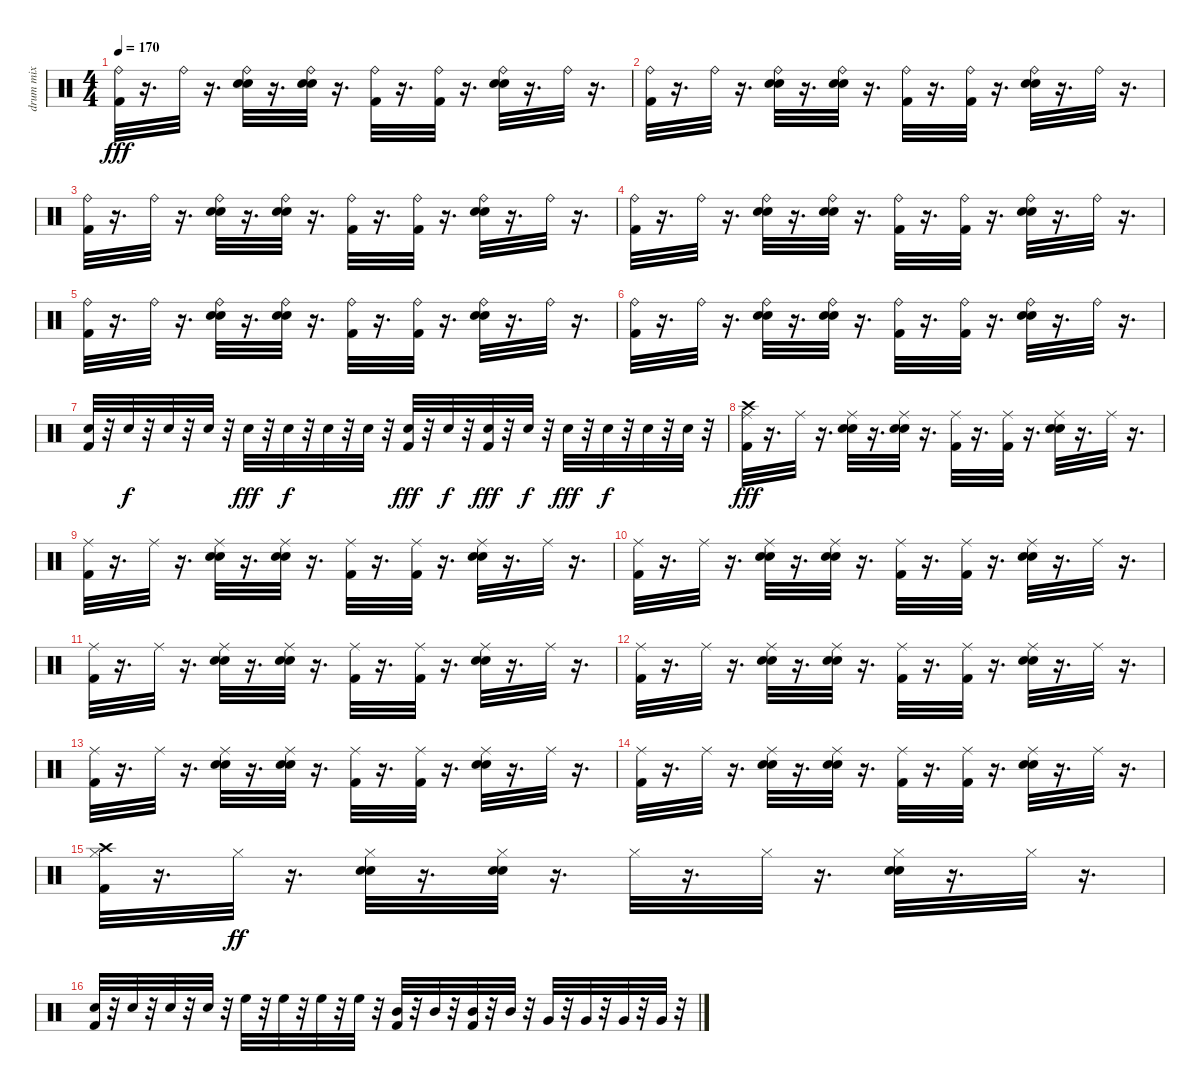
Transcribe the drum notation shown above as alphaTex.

\track ("drum mix" "drum mix") {instrument percussion}
\staff {score}
\articulation defaults
\ts (4 4)
\tempo 170
\clef neutral
\ks c
("Kick (hit) 2" "Ride (bell)").32{dy fff} r.16{d} "Ride (bell)".32 r.16{d} ("Snare (hit) 2" "Hand Clap (hit)" "Ride (bell)").32 r.16{d} ("Snare (hit) 2" "Hand Clap (hit)" "Ride (bell)").32 r.16{d} ("Kick (hit) 2" "Ride (bell)").32 r.16{d} ("Kick (hit) 2" "Ride (bell)").32 r.16{d} ("Snare (hit) 2" "Hand Clap (hit)" "Ride (bell)").32 r.16{d} "Ride (bell)".32 r.16{d} |
("Kick (hit) 2" "Ride (bell)").32 r.16{d} "Ride (bell)".32 r.16{d} ("Snare (hit) 2" "Hand Clap (hit)" "Ride (bell)").32 r.16{d} ("Snare (hit) 2" "Hand Clap (hit)" "Ride (bell)").32 r.16{d} ("Kick (hit) 2" "Ride (bell)").32 r.16{d} ("Kick (hit) 2" "Ride (bell)").32 r.16{d} ("Snare (hit) 2" "Hand Clap (hit)" "Ride (bell)").32 r.16{d} "Ride (bell)".32 r.16{d} |
("Kick (hit) 2" "Ride (bell)").32 r.16{d} "Ride (bell)".32 r.16{d} ("Snare (hit) 2" "Hand Clap (hit)" "Ride (bell)").32 r.16{d} ("Snare (hit) 2" "Hand Clap (hit)" "Ride (bell)").32 r.16{d} ("Kick (hit) 2" "Ride (bell)").32 r.16{d} ("Kick (hit) 2" "Ride (bell)").32 r.16{d} ("Snare (hit) 2" "Hand Clap (hit)" "Ride (bell)").32 r.16{d} "Ride (bell)".32 r.16{d} |
("Kick (hit) 2" "Ride (bell)").32 r.16{d} "Ride (bell)".32 r.16{d} ("Snare (hit) 2" "Hand Clap (hit)" "Ride (bell)").32 r.16{d} ("Snare (hit) 2" "Hand Clap (hit)" "Ride (bell)").32 r.16{d} ("Kick (hit) 2" "Ride (bell)").32 r.16{d} ("Kick (hit) 2" "Ride (bell)").32 r.16{d} ("Snare (hit) 2" "Hand Clap (hit)" "Ride (bell)").32 r.16{d} "Ride (bell)".32 r.16{d} |
("Kick (hit) 2" "Ride (bell)").32 r.16{d} "Ride (bell)".32 r.16{d} ("Snare (hit) 2" "Hand Clap (hit)" "Ride (bell)").32 r.16{d} ("Snare (hit) 2" "Hand Clap (hit)" "Ride (bell)").32 r.16{d} ("Kick (hit) 2" "Ride (bell)").32 r.16{d} ("Kick (hit) 2" "Ride (bell)").32 r.16{d} ("Snare (hit) 2" "Hand Clap (hit)" "Ride (bell)").32 r.16{d} "Ride (bell)".32 r.16{d} |
("Kick (hit) 2" "Ride (bell)").32 r.16{d} "Ride (bell)".32 r.16{d} ("Snare (hit) 2" "Hand Clap (hit)" "Ride (bell)").32 r.16{d} ("Snare (hit) 2" "Hand Clap (hit)" "Ride (bell)").32 r.16{d} ("Kick (hit) 2" "Ride (bell)").32 r.16{d} ("Kick (hit) 2" "Ride (bell)").32 r.16{d} ("Snare (hit) 2" "Hand Clap (hit)" "Ride (bell)").32 r.16{d} "Ride (bell)".32 r.16{d} |
("Kick (hit) 2" "Snare (hit) 2").32 r.32 "Snare (hit) 2".32{dy f} r.32 "Snare (hit) 2".32 r.32 "Snare (hit) 2".32 r.32 "Snare (hit) 2".32{dy fff} r.32 "Snare (hit) 2".32{dy f} r.32 "Snare (hit) 2".32 r.32 "Snare (hit) 2".32 r.32 ("Kick (hit) 2" "Snare (hit) 2").32{dy fff} r.32 "Snare (hit) 2".32{dy f} r.32 ("Kick (hit) 2" "Snare (hit) 2").32{dy fff} r.32 "Snare (hit) 2".32{dy f} r.32 "Snare (hit) 2".32{dy fff} r.32 "Snare (hit) 2".32{dy f} r.32 "Snare (hit) 2".32 r.32 "Snare (hit) 2".32 r.32 |
("Kick (hit) 2" "Crash high (hit)" "Ride (middle)").32{dy fff} r.16{d} "Ride (middle)".32 r.16{d} ("Snare (hit) 2" "Hand Clap (hit)" "Ride (middle)").32 r.16{d} ("Snare (hit) 2" "Hand Clap (hit)" "Ride (middle)").32 r.16{d} ("Kick (hit) 2" "Ride (middle)").32 r.16{d} ("Kick (hit) 2" "Ride (middle)").32 r.16{d} ("Snare (hit) 2" "Hand Clap (hit)" "Ride (middle)").32 r.16{d} "Ride (middle)".32 r.16{d} |
("Kick (hit) 2" "Ride (middle)").32 r.16{d} "Ride (middle)".32 r.16{d} ("Snare (hit) 2" "Hand Clap (hit)" "Ride (middle)").32 r.16{d} ("Snare (hit) 2" "Hand Clap (hit)" "Ride (middle)").32 r.16{d} ("Kick (hit) 2" "Ride (middle)").32 r.16{d} ("Kick (hit) 2" "Ride (middle)").32 r.16{d} ("Snare (hit) 2" "Hand Clap (hit)" "Ride (middle)").32 r.16{d} "Ride (middle)".32 r.16{d} |
("Kick (hit) 2" "Ride (middle)").32 r.16{d} "Ride (middle)".32 r.16{d} ("Snare (hit) 2" "Hand Clap (hit)" "Ride (middle)").32 r.16{d} ("Snare (hit) 2" "Hand Clap (hit)" "Ride (middle)").32 r.16{d} ("Kick (hit) 2" "Ride (middle)").32 r.16{d} ("Kick (hit) 2" "Ride (middle)").32 r.16{d} ("Snare (hit) 2" "Hand Clap (hit)" "Ride (middle)").32 r.16{d} "Ride (middle)".32 r.16{d} |
("Kick (hit) 2" "Ride (middle)").32 r.16{d} "Ride (middle)".32 r.16{d} ("Snare (hit) 2" "Hand Clap (hit)" "Ride (middle)").32 r.16{d} ("Snare (hit) 2" "Hand Clap (hit)" "Ride (middle)").32 r.16{d} ("Kick (hit) 2" "Ride (middle)").32 r.16{d} ("Kick (hit) 2" "Ride (middle)").32 r.16{d} ("Snare (hit) 2" "Hand Clap (hit)" "Ride (middle)").32 r.16{d} "Ride (middle)".32 r.16{d} |
("Kick (hit) 2" "Ride (middle)").32 r.16{d} "Ride (middle)".32 r.16{d} ("Snare (hit) 2" "Hand Clap (hit)" "Ride (middle)").32 r.16{d} ("Snare (hit) 2" "Hand Clap (hit)" "Ride (middle)").32 r.16{d} ("Kick (hit) 2" "Ride (middle)").32 r.16{d} ("Kick (hit) 2" "Ride (middle)").32 r.16{d} ("Snare (hit) 2" "Hand Clap (hit)" "Ride (middle)").32 r.16{d} "Ride (middle)".32 r.16{d} |
("Kick (hit) 2" "Ride (middle)").32 r.16{d} "Ride (middle)".32 r.16{d} ("Snare (hit) 2" "Hand Clap (hit)" "Ride (middle)").32 r.16{d} ("Snare (hit) 2" "Hand Clap (hit)" "Ride (middle)").32 r.16{d} ("Kick (hit) 2" "Ride (middle)").32 r.16{d} ("Kick (hit) 2" "Ride (middle)").32 r.16{d} ("Snare (hit) 2" "Hand Clap (hit)" "Ride (middle)").32 r.16{d} "Ride (middle)".32 r.16{d} |
("Kick (hit) 2" "Ride (middle)").32 r.16{d} "Ride (middle)".32 r.16{d} ("Snare (hit) 2" "Hand Clap (hit)" "Ride (middle)").32 r.16{d} ("Snare (hit) 2" "Hand Clap (hit)" "Ride (middle)").32 r.16{d} ("Kick (hit) 2" "Ride (middle)").32 r.16{d} ("Kick (hit) 2" "Ride (middle)").32 r.16{d} ("Snare (hit) 2" "Hand Clap (hit)" "Ride (middle)").32 r.16{d} "Ride (middle)".32 r.16{d} |
("Kick (hit) 2" "Hi-Hat (closed)" "Crash high (hit)").32 r.16{d} "Hi-Hat (closed)".32{dy ff} r.16{d} ("Snare (hit) 2" "Hand Clap (hit)" "Hi-Hat (closed)").32 r.16{d} ("Snare (hit) 2" "Hand Clap (hit)" "Hi-Hat (closed)").32 r.16{d} "Hi-Hat (closed)".32 r.16{d} "Hi-Hat (closed)".32 r.16{d} ("Snare (hit) 2" "Hand Clap (hit)" "Hi-Hat (closed)").32 r.16{d} "Hi-Hat (closed)".32 r.16{d} |
("Kick (hit) 2" "Snare (hit) 2").32 r.32 "Snare (hit) 2".32 r.32 "Snare (hit) 2".32 r.32 "Snare (hit) 2".32 r.32 "High Floor Tom (hit)".32 r.32 "High Floor Tom (hit)".32 r.32 "High Floor Tom (hit)".32 r.32 "High Floor Tom (hit)".32 r.32 ("Kick (hit) 2" "Mid Tom (hit)").32 r.32 "Mid Tom (hit)".32 r.32 ("Kick (hit) 2" "Mid Tom (hit)").32 r.32 "Mid Tom (hit)".32 r.32 "Very Low Tom (hit)".32 r.32 "Very Low Tom (hit)".32 r.32 "Very Low Tom (hit)".32 r.32 "Very Low Tom (hit)".32 r.32
